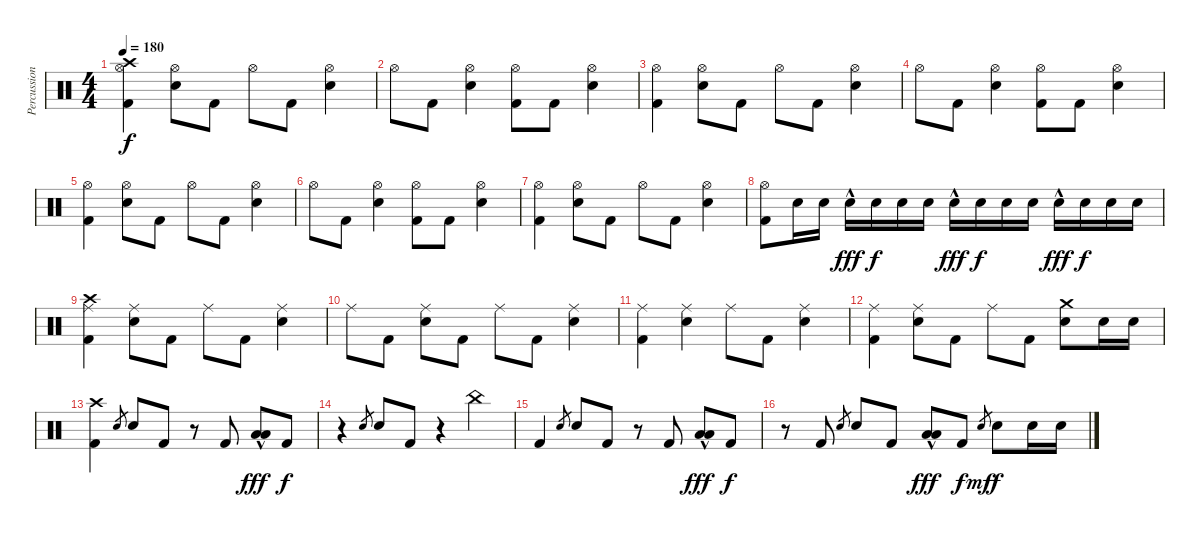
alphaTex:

\track ("Percussion" "Percussion") {instrument percussion}
\staff {score}
\articulation defaults
\ts (4 4)
\tempo 180
\clef neutral
\ks c
("Hi-Hat (open)" "Crash high (hit)" "Kick (hit) 2").4{dy f} ("Hi-Hat (open)" "Electric Snare (hit)").8 "Kick (hit) 2".8 "Hi-Hat (open)".8 "Kick (hit) 2".8 ("Hi-Hat (open)" "Electric Snare (hit)").4 |
"Hi-Hat (open)".8 "Kick (hit) 2".8 ("Hi-Hat (open)" "Electric Snare (hit)").4 ("Hi-Hat (open)" "Kick (hit) 2").8 "Kick (hit) 2".8 ("Hi-Hat (open)" "Electric Snare (hit)").4 |
("Hi-Hat (open)" "Kick (hit) 2").4 ("Hi-Hat (open)" "Electric Snare (hit)").8 "Kick (hit) 2".8 "Hi-Hat (open)".8 "Kick (hit) 2".8 ("Hi-Hat (open)" "Electric Snare (hit)").4 |
"Hi-Hat (open)".8 "Kick (hit) 2".8 ("Hi-Hat (open)" "Electric Snare (hit)").4 ("Hi-Hat (open)" "Kick (hit) 2").8 "Kick (hit) 2".8 ("Hi-Hat (open)" "Electric Snare (hit)").4 |
("Hi-Hat (open)" "Kick (hit) 2").4 ("Hi-Hat (open)" "Electric Snare (hit)").8 "Kick (hit) 2".8 "Hi-Hat (open)".8 "Kick (hit) 2".8 ("Hi-Hat (open)" "Electric Snare (hit)").4 |
"Hi-Hat (open)".8 "Kick (hit) 2".8 ("Hi-Hat (open)" "Electric Snare (hit)").4 ("Hi-Hat (open)" "Kick (hit) 2").8 "Kick (hit) 2".8 ("Hi-Hat (open)" "Electric Snare (hit)").4 |
("Hi-Hat (open)" "Kick (hit) 2").4 ("Hi-Hat (open)" "Electric Snare (hit)").8 "Kick (hit) 2".8 "Hi-Hat (open)".8 "Kick (hit) 2".8 ("Hi-Hat (open)" "Electric Snare (hit)").4 |
("Hi-Hat (open)" "Kick (hit) 2").8 "Electric Snare (hit)".16 "Electric Snare (hit)".16 "Electric Snare (hit)"{hac}.16{dy fff} "Electric Snare (hit)".16{dy f} "Electric Snare (hit)".16 "Electric Snare (hit)".16 "Electric Snare (hit)"{hac}.16{dy fff} "Electric Snare (hit)".16{dy f} "Electric Snare (hit)".16 "Electric Snare (hit)".16 "Electric Snare (hit)"{hac}.16{dy fff} "Electric Snare (hit)".16{dy f} "Electric Snare (hit)".16 "Electric Snare (hit)".16 |
("Ride (middle)" "Crash high (hit)" "Kick (hit) 2").4 ("Ride (middle)" "Electric Snare (hit)").8 "Kick (hit) 2".8 "Ride (middle)".8 "Kick (hit) 2".8 ("Ride (middle)" "Electric Snare (hit)").4 |
"Ride (middle)".8 "Kick (hit) 2".8 ("Ride (middle)" "Electric Snare (hit)").8 "Kick (hit) 2".8 "Ride (middle)".8 "Kick (hit) 2".8 ("Ride (middle)" "Electric Snare (hit)").4 |
("Ride (middle)" "Kick (hit) 2").4 ("Ride (middle)" "Electric Snare (hit)").4 "Ride (middle)".8 "Kick (hit) 2".8 ("Ride (middle)" "Electric Snare (hit)").4 |
("Ride (middle)" "Kick (hit) 2").4 ("Ride (middle)" "Electric Snare (hit)").8 "Kick (hit) 2".8 "Ride (middle)".8 "Kick (hit) 2".8 ("Crash medium (hit)" "Electric Snare (hit)").8 "Electric Snare (hit)".16 "Electric Snare (hit)".16 |
("Crash high (hit)" "Kick (hit) 2").4 "Electric Snare (hit)".8{gr} "Electric Snare (hit)".8 "Kick (hit) 2".8 r.8 "Kick (hit) 2".8 ("Low Tom (hit)"{hac} "Low Floor Tom (hit)"{hac}).8{dy fff} "Kick (hit) 2".8{dy f} |
r.4 "Electric Snare (hit)".8{gr} "Electric Snare (hit)".8 "Kick (hit) 2".8 r.4 "China (hit)".4 |
"Kick (hit) 2".4 "Electric Snare (hit)".8{gr} "Electric Snare (hit)".8 "Kick (hit) 2".8 r.8 "Kick (hit) 2".8 ("Low Tom (hit)"{hac} "Low Floor Tom (hit)"{hac}).8{dy fff} "Kick (hit) 2".8{dy f} |
r.8 "Kick (hit) 2".8 "Electric Snare (hit)".8{gr} "Electric Snare (hit)".8 "Kick (hit) 2".8 ("Low Tom (hit)"{hac} "Low Floor Tom (hit)"{hac}).8{dy fff} "Kick (hit) 2".8{dy f} "Electric Snare (hit)".8{gr dy mf} "Electric Snare (hit)".8{dy f} "Electric Snare (hit)".16 "Electric Snare (hit)".16
